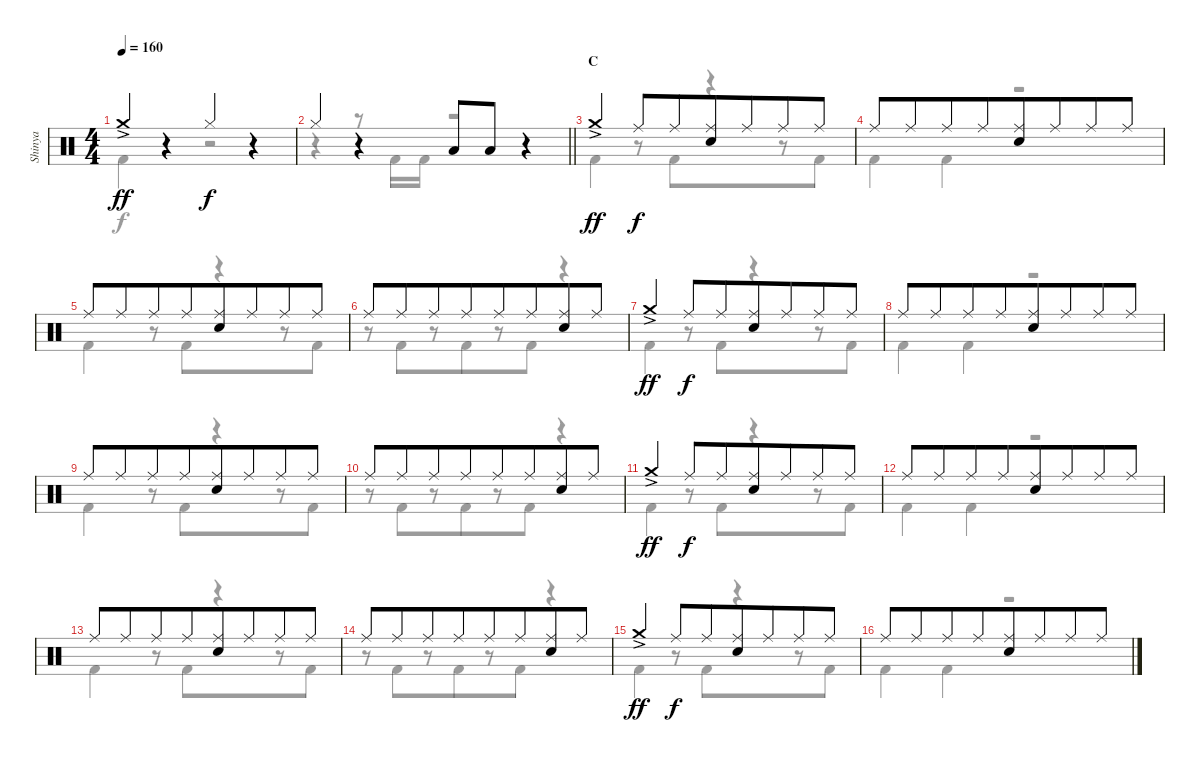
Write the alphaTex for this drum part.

\track ("Shinya" "Shinya") {instrument percussion}
\staff {score}
\articulation defaults
\voice
\ts (4 4)
\tempo 160
\clef neutral
\ks c "Crash medium (hit)"{ac}.4{dy ff beam merge}
r.4{beam merge} "Hi-Hat (closed)".4{dy f beam merge} r.4 |
\barLineRight lightlight "Hi-Hat (closed)".4{beam merge}
r.4{beam merge} "Low Tom (hit)".8{beam merge} "Low Tom (hit)".8{beam merge} r.4 |
\section ("" "C")
"Crash medium (hit)"{ac}.4{dy ff beam merge} "Ride (middle)".8{dy f beam merge} "Ride (middle)".8{beam merge} ("Ride (middle)" "Electric Snare (hit)").8{beam merge} "Ride (middle)".8{beam merge} "Ride (middle)".8{beam merge} "Ride (middle)".8 |
"Ride (middle)".8{beam merge} "Ride (middle)".8{beam merge} "Ride (middle)".8{beam merge} "Ride (middle)".8{beam merge} ("Ride (middle)" "Electric Snare (hit)").8 "Ride (middle)".8{beam merge} "Ride (middle)".8 "Ride (middle)".8 |
"Ride (middle)".8{beam merge} "Ride (middle)".8{beam merge} "Ride (middle)".8{beam merge} "Ride (middle)".8{beam merge} ("Ride (middle)" "Electric Snare (hit)").8 "Ride (middle)".8{beam merge} "Ride (middle)".8 "Ride (middle)".8 |
"Ride (middle)".8{beam merge} "Ride (middle)".8{beam merge} "Ride (middle)".8{beam merge} "Ride (middle)".8{beam merge} "Ride (middle)".8 "Ride (middle)".8{beam merge} ("Ride (middle)" "Electric Snare (hit)").8 "Ride (middle)".8 |
"Crash medium (hit)"{ac}.4{dy ff beam merge} "Ride (middle)".8{dy f beam merge} "Ride (middle)".8{beam merge} ("Ride (middle)" "Electric Snare (hit)").8{beam merge} "Ride (middle)".8{beam merge} "Ride (middle)".8{beam merge} "Ride (middle)".8 |
"Ride (middle)".8{beam merge} "Ride (middle)".8{beam merge} "Ride (middle)".8{beam merge} "Ride (middle)".8{beam merge} ("Ride (middle)" "Electric Snare (hit)").8 "Ride (middle)".8{beam merge} "Ride (middle)".8 "Ride (middle)".8 |
"Ride (middle)".8{beam merge} "Ride (middle)".8{beam merge} "Ride (middle)".8{beam merge} "Ride (middle)".8{beam merge} ("Ride (middle)" "Electric Snare (hit)").8 "Ride (middle)".8{beam merge} "Ride (middle)".8 "Ride (middle)".8 |
"Ride (middle)".8{beam merge} "Ride (middle)".8{beam merge} "Ride (middle)".8{beam merge} "Ride (middle)".8{beam merge} "Ride (middle)".8 "Ride (middle)".8{beam merge} ("Ride (middle)" "Electric Snare (hit)").8 "Ride (middle)".8 |
"Crash medium (hit)"{ac}.4{dy ff beam merge} "Ride (middle)".8{dy f beam merge} "Ride (middle)".8{beam merge} ("Ride (middle)" "Electric Snare (hit)").8{beam merge} "Ride (middle)".8{beam merge} "Ride (middle)".8{beam merge} "Ride (middle)".8 |
"Ride (middle)".8{beam merge} "Ride (middle)".8{beam merge} "Ride (middle)".8{beam merge} "Ride (middle)".8{beam merge} ("Ride (middle)" "Electric Snare (hit)").8 "Ride (middle)".8{beam merge} "Ride (middle)".8 "Ride (middle)".8 |
"Ride (middle)".8{beam merge} "Ride (middle)".8{beam merge} "Ride (middle)".8{beam merge} "Ride (middle)".8{beam merge} ("Ride (middle)" "Electric Snare (hit)").8 "Ride (middle)".8{beam merge} "Ride (middle)".8 "Ride (middle)".8 |
"Ride (middle)".8{beam merge} "Ride (middle)".8{beam merge} "Ride (middle)".8{beam merge} "Ride (middle)".8{beam merge} "Ride (middle)".8 "Ride (middle)".8{beam merge} ("Ride (middle)" "Electric Snare (hit)").8 "Ride (middle)".8 |
"Crash medium (hit)"{ac}.4{dy ff beam merge} "Ride (middle)".8{dy f beam merge} "Ride (middle)".8{beam merge} ("Ride (middle)" "Electric Snare (hit)").8{beam merge} "Ride (middle)".8{beam merge} "Ride (middle)".8{beam merge} "Ride (middle)".8 |
"Ride (middle)".8{beam merge} "Ride (middle)".8{beam merge} "Ride (middle)".8{beam merge} "Ride (middle)".8{beam merge} ("Ride (middle)" "Electric Snare (hit)").8 "Ride (middle)".8{beam merge} "Ride (middle)".8 "Ride (middle)".8
\voice
\clef neutral
\ottava regular
\simile none
\ks c "Kick (hit) 2".4{dy f beam merge}
r.4{beam merge} r.2 |
\barLineRight lightlight
r.4{beam merge} r.8{beam merge} "Kick (hit) 2".16{beam merge} "Kick (hit) 2".16{beam merge} r.2 |
"Kick (hit) 2".4{beam merge} r.8{beam merge} "Kick (hit) 2".8{beam merge} r.4{beam merge} r.8 "Kick (hit) 2".8 |
"Kick (hit) 2".4{beam merge} "Kick (hit) 2".4{beam merge} r.2 |
"Kick (hit) 2".4{beam merge} r.8{beam merge} "Kick (hit) 2".8{beam merge} r.4{beam merge} r.8 "Kick (hit) 2".8 |
r.8{beam merge} "Kick (hit) 2".8{beam merge} r.8{beam merge} "Kick (hit) 2".8{beam merge} r.8 "Kick (hit) 2".8{beam merge} r.4 |
"Kick (hit) 2".4{beam merge} r.8{beam merge} "Kick (hit) 2".8{beam merge} r.4{beam merge} r.8 "Kick (hit) 2".8 |
"Kick (hit) 2".4{beam merge} "Kick (hit) 2".4{beam merge} r.2 |
"Kick (hit) 2".4{beam merge} r.8{beam merge} "Kick (hit) 2".8{beam merge} r.4{beam merge} r.8 "Kick (hit) 2".8 |
r.8{beam merge} "Kick (hit) 2".8{beam merge} r.8{beam merge} "Kick (hit) 2".8{beam merge} r.8 "Kick (hit) 2".8{beam merge} r.4 |
"Kick (hit) 2".4{beam merge} r.8{beam merge} "Kick (hit) 2".8{beam merge} r.4{beam merge} r.8 "Kick (hit) 2".8 |
"Kick (hit) 2".4{beam merge} "Kick (hit) 2".4{beam merge} r.2 |
"Kick (hit) 2".4{beam merge} r.8{beam merge} "Kick (hit) 2".8{beam merge} r.4{beam merge} r.8 "Kick (hit) 2".8 |
r.8{beam merge} "Kick (hit) 2".8{beam merge} r.8{beam merge} "Kick (hit) 2".8{beam merge} r.8 "Kick (hit) 2".8{beam merge} r.4 |
"Kick (hit) 2".4{beam merge} r.8{beam merge} "Kick (hit) 2".8{beam merge} r.4{beam merge} r.8 "Kick (hit) 2".8 |
"Kick (hit) 2".4{beam merge} "Kick (hit) 2".4{beam merge} r.2
